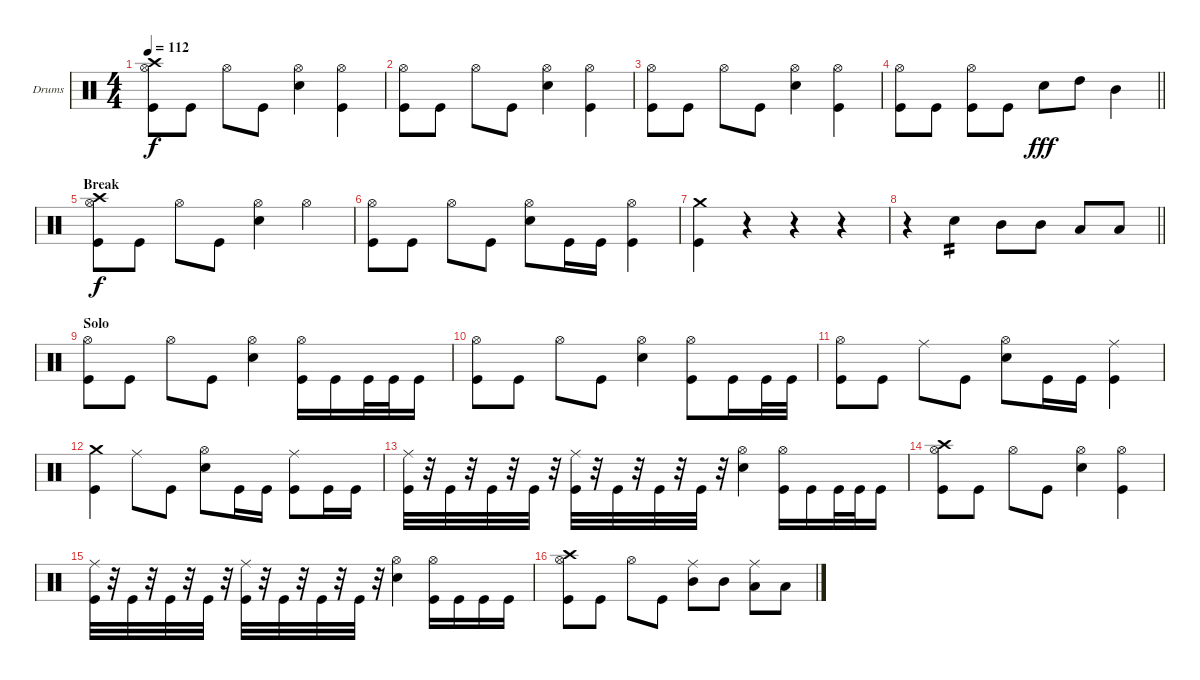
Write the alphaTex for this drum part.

\bracketExtendMode groupsimilarinstruments
\firstSystemTrackNameOrientation horizontal
\otherSystemsTrackNameOrientation horizontal
\track ("Drumkit" "Drums") {instrument percussion}
\staff {score}
\articulation defaults
\ts (4 4)
\tempo 112
\clef neutral
\ks c
("Kick (hit)" "Hi-Hat (open)" "Crash high (hit)").8{dy f} "Kick (hit)".8 "Hi-Hat (open)".8 "Kick (hit)".8 ("Snare (hit) 2" "Hi-Hat (open)").4 ("Kick (hit)" "Hi-Hat (open)").4 |
("Kick (hit)" "Hi-Hat (open)").8 "Kick (hit)".8 "Hi-Hat (open)".8 "Kick (hit)".8 ("Snare (hit) 2" "Hi-Hat (open)").4 ("Kick (hit)" "Hi-Hat (open)").4 |
("Kick (hit)" "Hi-Hat (open)").8 "Kick (hit)".8 "Hi-Hat (open)".8 "Kick (hit)".8 ("Snare (hit) 2" "Hi-Hat (open)").4 ("Kick (hit)" "Hi-Hat (open)").4 |
\barLineRight lightlight
("Kick (hit)" "Hi-Hat (open)").8 "Kick (hit)".8 ("Kick (hit)" "Hi-Hat (open)").8 "Kick (hit)".8 "Snare (hit) 2".8{dy fff} "High Tom (hit)".8 "Mid Tom (hit)".4 |
\section ("" "Break")
("Kick (hit)" "Hi-Hat (open)" "Crash high (hit)").8{dy f} "Kick (hit)".8 "Hi-Hat (open)".8 "Kick (hit)".8 ("Snare (hit) 2" "Hi-Hat (open)").4 "Hi-Hat (open)".4 |
("Kick (hit)" "Hi-Hat (open)").8 "Kick (hit)".8 "Hi-Hat (open)".8 "Kick (hit)".8 ("Snare (hit) 2" "Hi-Hat (open)").8 "Kick (hit)".16 "Kick (hit)".16 ("Kick (hit)" "Hi-Hat (open)").4 |
("Kick (hit)" "Crash medium (hit)").4 r.4 r.4 r.4 |
\barLineRight lightlight
r.4 "Snare (hit) 2".4{tp 2} "Mid Tom (hit)".8 "Mid Tom (hit)".8 "Low Tom (hit)".8 "Low Tom (hit)".8 |
\section ("" "Solo")
("Kick (hit)" "Hi-Hat (open)").8 "Kick (hit)".8 "Hi-Hat (open)".8 "Kick (hit)".8 ("Snare (hit) 2" "Hi-Hat (open)").4 ("Kick (hit)" "Hi-Hat (open)").16 "Kick (hit)".16 "Kick (hit)".32 "Kick (hit)".32 "Kick (hit)".16 |
("Kick (hit)" "Hi-Hat (open)").8 "Kick (hit)".8 "Hi-Hat (open)".8 "Kick (hit)".8 ("Snare (hit) 2" "Hi-Hat (open)").4 ("Kick (hit)" "Hi-Hat (open)").8 "Kick (hit)".16 "Kick (hit)".32 "Kick (hit)".32 |
("Kick (hit)" "Hi-Hat (open)").8 "Kick (hit)".8 "Ride (middle)".8 "Kick (hit)".8 ("Snare (hit) 2" "Hi-Hat (open)").8 "Kick (hit)".16 "Kick (hit)".16 ("Kick (hit)" "Ride (middle)").4 |
("Crash medium (hit)" "Kick (hit)").4 "Ride (middle)".8 "Kick (hit)".8 ("Snare (hit) 2" "Hi-Hat (open)").8 "Kick (hit)".16 "Kick (hit)".16 ("Kick (hit)" "Ride (middle)").8 "Kick (hit)".16 "Kick (hit)".16 |
("Kick (hit)" "Ride (middle)").32 r.32 "Kick (hit)".32 r.32 "Kick (hit)".32 r.32 "Kick (hit)".32 r.32 ("Kick (hit)" "Ride (middle)").32 r.32 "Kick (hit)".32 r.32 "Kick (hit)".32 r.32 "Kick (hit)".32 r.32 ("Snare (hit) 2" "Hi-Hat (open)").4 ("Kick (hit)" "Hi-Hat (open)").16 "Kick (hit)".16 "Kick (hit)".32 "Kick (hit)".32 "Kick (hit)".16 |
("Kick (hit)" "Hi-Hat (open)" "Crash high (hit)").8 "Kick (hit)".8 "Hi-Hat (open)".8 "Kick (hit)".8 ("Snare (hit) 2" "Hi-Hat (open)").4 ("Kick (hit)" "Hi-Hat (open)").4 |
("Kick (hit)" "Ride (middle)").32 r.32 "Kick (hit)".32 r.32 "Kick (hit)".32 r.32 "Kick (hit)".32 r.32 ("Kick (hit)" "Ride (middle)").32 r.32 "Kick (hit)".32 r.32 "Kick (hit)".32 r.32 "Kick (hit)".32 r.32 ("Snare (hit) 2" "Hi-Hat (open)").4 ("Kick (hit)" "Hi-Hat (open)").16 "Kick (hit)".16 "Kick (hit)".16 "Kick (hit)".16 |
("Kick (hit)" "Hi-Hat (open)" "Crash high (hit)").8 "Kick (hit)".8 "Hi-Hat (open)".8 "Kick (hit)".8 ("Mid Tom (hit)" "Ride (middle)").8 "Mid Tom (hit)".8 ("Low Tom (hit)" "Ride (middle)").8 "Low Tom (hit)".8
